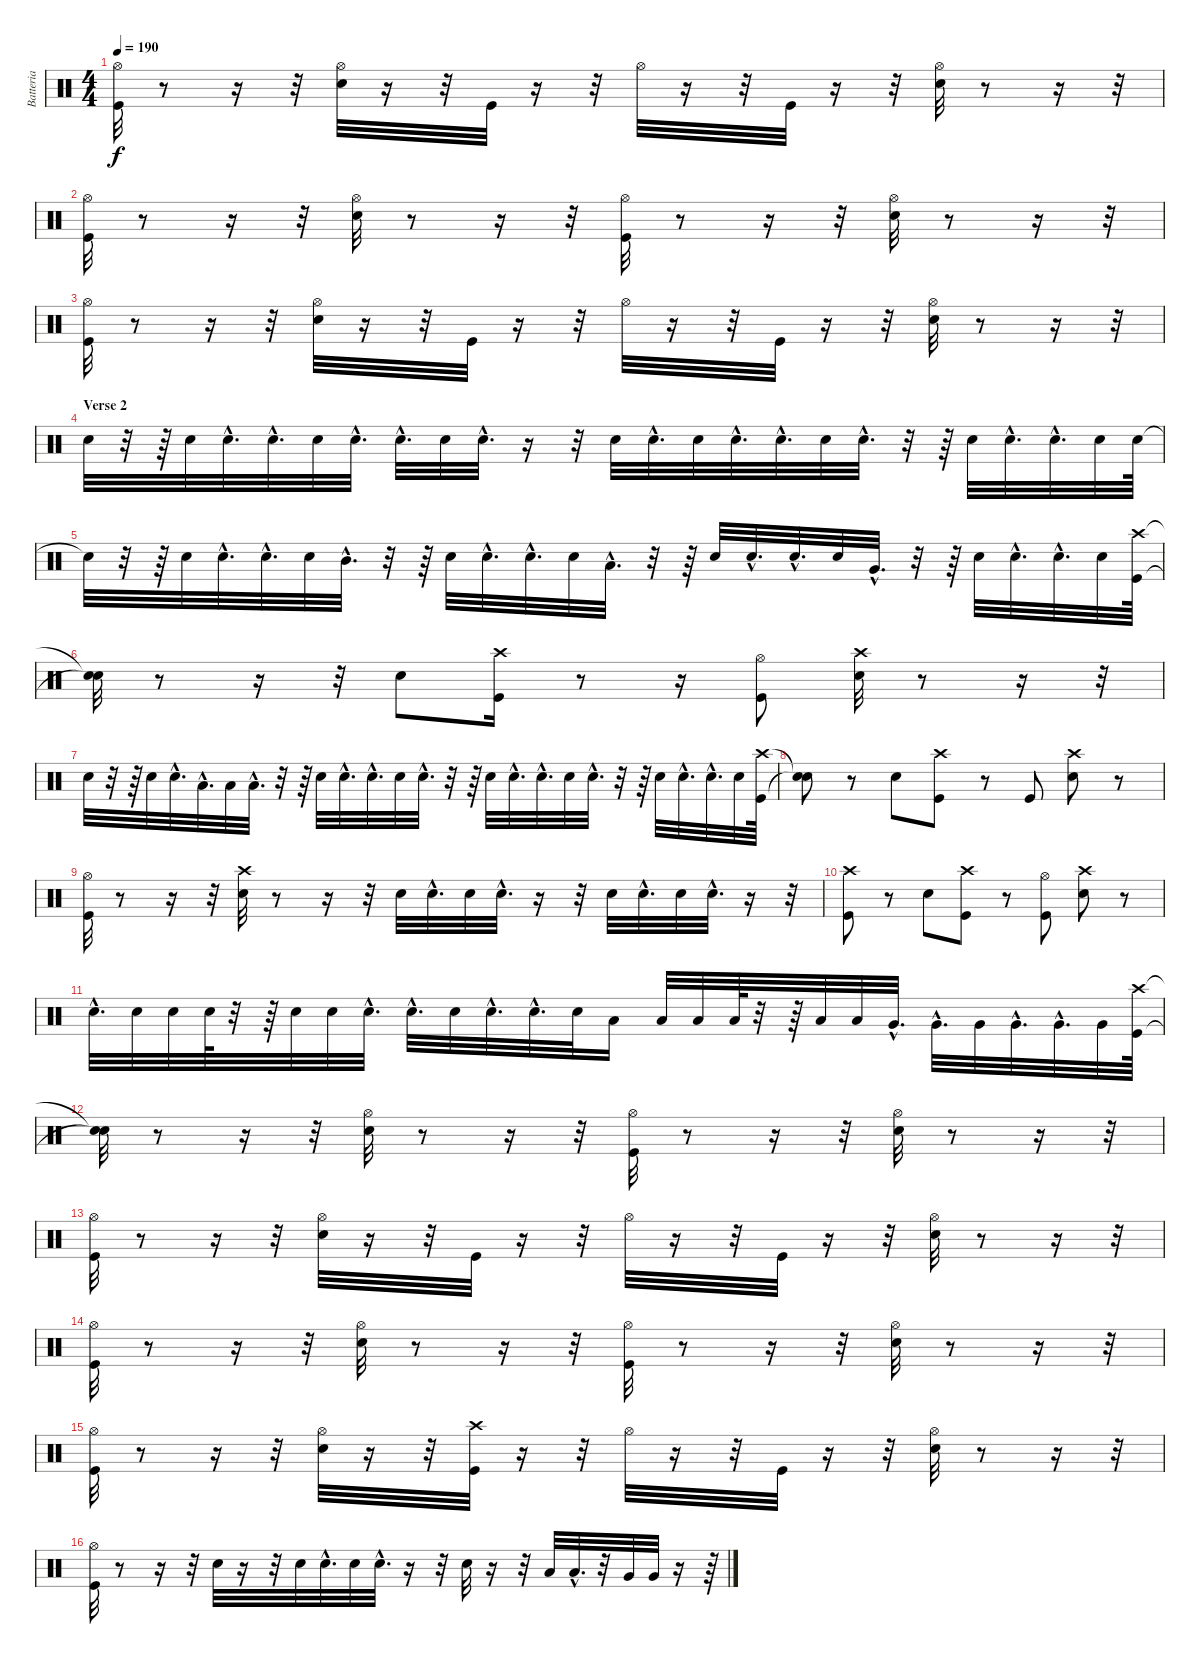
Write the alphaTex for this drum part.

\track ("Batteria" "Batteria") {instrument percussion}
\staff {score}
\articulation defaults
\ts (4 4)
\tempo 190
\clef neutral
\ks c
("Kick (hit)" "Hi-Hat (open)").32{dy f} r.8 r.16 r.32 ("Hi-Hat (open)" "Snare (hit) 2").32 r.16 r.32 "Kick (hit)".32 r.16 r.32 "Hi-Hat (open)".32 r.16 r.32 "Kick (hit)".32 r.16 r.32 ("Hi-Hat (open)" "Snare (hit) 2").32 r.8 r.16 r.32 |
("Hi-Hat (open)" "Kick (hit)").32 r.8 r.16 r.32 ("Snare (hit) 2" "Hi-Hat (open)").32 r.8 r.16 r.32 ("Hi-Hat (open)" "Kick (hit)").32 r.8 r.16 r.32 ("Hi-Hat (open)" "Snare (hit) 2").32 r.8 r.16 r.32 |
("Kick (hit)" "Hi-Hat (open)").32 r.8 r.16 r.32 ("Snare (hit) 2" "Hi-Hat (open)").32 r.16 r.32 "Kick (hit)".32 r.16 r.32 "Hi-Hat (open)".32 r.16 r.32 "Kick (hit)".32 r.16 r.32 ("Snare (hit) 2" "Hi-Hat (open)").32 r.8 r.16 r.32 |
\section ("" "Verse 2")
"Snare (hit) 2".32 r.32 r.64 "Snare (hit) 2".32 "Snare (hit) 2"{hac}.32{d} "Snare (hit) 2"{hac}.32{d} "Snare (hit) 2".32 "Snare (hit) 2"{hac}.32{d} "Snare (hit) 2"{hac}.32{d} "Snare (hit) 2".32 "Snare (hit) 2"{hac}.32{d} r.16 r.32 "Snare (hit) 2".32 "Snare (hit) 2"{hac}.32{d} "Snare (hit) 2".32 "Snare (hit) 2"{hac}.32{d} "Snare (hit) 2"{hac}.32{d} "Snare (hit) 2".32 "Snare (hit) 2"{hac}.32{d} r.32 r.64 "Snare (hit) 2".32 "Snare (hit) 2"{hac}.32{d} "Snare (hit) 2"{hac}.32{d} "Snare (hit) 2".32 "Snare (hit) 2".64 |
"Snare (hit)"{t}.32 r.32 r.64 "Snare (hit) 2".32 "Snare (hit) 2"{hac}.32{d} "Snare (hit) 2"{hac}.32{d} "Snare (hit) 2".32 "Mid Tom (hit)"{hac}.32{d} r.32 r.64 "Snare (hit) 2".32 "Snare (hit) 2"{hac}.32{d} "Snare (hit) 2"{hac}.32{d} "Snare (hit) 2".32 "Low Tom (hit)"{hac}.32{d} r.32 r.64 "Snare (hit) 2".32 "Snare (hit) 2"{hac}.32{d} "Snare (hit) 2"{hac}.32{d} "Snare (hit) 2".32 "Very Low Tom (hit)"{hac}.32{d} r.32 r.64 "Snare (hit) 2".32 "Snare (hit) 2"{hac}.32{d} "Snare (hit) 2"{hac}.32{d} "Snare (hit) 2".32 ("Crash high (hit)" "Kick (hit)").64 |
("Snare (hit)"{t} "Snare (hit)"{t}).32 r.8 r.16 r.32 "Snare (hit) 2".8 ("Crash high (hit)" "Kick (hit)").16 r.8 r.16 ("Hi-Hat (open)" "Kick (hit)").8 ("Crash high (hit)" "Snare (hit) 2").32 r.8 r.16 r.32 |
"Snare (hit) 2".32 r.32 r.64 "Snare (hit) 2".32 "Snare (hit) 2"{hac}.32{d} "Low Tom (hit)"{hac}.32{d} "Low Tom (hit)".32 "Low Tom (hit)"{hac}.32{d} r.32 r.64 "Snare (hit) 2".32 "Snare (hit) 2"{hac}.32{d} "Snare (hit) 2"{hac}.32{d} "Snare (hit) 2".32 "Snare (hit) 2"{hac}.32{d} r.32 r.64 "Snare (hit) 2".32 "Snare (hit) 2"{hac}.32{d} "Snare (hit) 2"{hac}.32{d} "Snare (hit) 2".32 "Snare (hit) 2"{hac}.32{d} r.32 r.64 "Snare (hit) 2".32 "Snare (hit) 2"{hac}.32{d} "Snare (hit) 2"{hac}.32{d} "Snare (hit) 2".32 ("Kick (hit)" "Crash high (hit)").64 |
("Snare (hit)"{t} "Snare (hit)"{t}).8 r.8 "Snare (hit) 2".8 ("Crash high (hit)" "Kick (hit)").8 r.8 "Kick (hit)".8 ("Crash high (hit)" "Snare (hit) 2").8 r.8 |
("Kick (hit)" "Hi-Hat (open)").32 r.8 r.16 r.32 ("Crash high (hit)" "Snare (hit) 2").32 r.8 r.16 r.32 "Snare (hit) 2".32 "Snare (hit) 2"{hac}.32{d} "Snare (hit) 2".32 "Snare (hit) 2"{hac}.32{d} r.16 r.32 "Snare (hit) 2".32 "Snare (hit) 2"{hac}.32{d} "Snare (hit) 2".32 "Snare (hit) 2"{hac}.32{d} r.16 r.32 |
("Kick (hit)" "Crash high (hit)").8 r.8 "Snare (hit) 2".8 ("Kick (hit)" "Crash high (hit)").8 r.8 ("Hi-Hat (open)" "Kick (hit)").8 ("Snare (hit) 2" "Crash high (hit)").8 r.8 |
"Snare (hit) 2"{hac}.32{d} "Snare (hit) 2".32 "Snare (hit) 2".32 "Snare (hit) 2".64 r.32 r.64 "Snare (hit) 2".32 "Snare (hit) 2".32 "Snare (hit) 2"{hac}.32{d} "Snare (hit) 2"{hac}.32{d} "Snare (hit) 2".32 "Snare (hit) 2"{hac}.32{d} "Snare (hit) 2"{hac}.32{d} "Snare (hit) 2".32 "Low Tom (hit)".16 "Low Tom (hit)".32 "Low Tom (hit)".32 "Low Tom (hit)".64 r.32 r.64 "Low Tom (hit)".32 "Low Tom (hit)".32 "Very Low Tom (hit)"{hac}.32{d} "Very Low Tom (hit)"{hac}.32{d} "Very Low Tom (hit)".32 "Very Low Tom (hit)"{hac}.32{d} "Very Low Tom (hit)"{hac}.32{d} "Very Low Tom (hit)".32 ("Crash high (hit)" "Kick (hit)").64 |
("Snare (hit)"{t} "Snare (hit)"{t}).32 r.8 r.16 r.32 ("Hi-Hat (open)" "Snare (hit) 2").32 r.8 r.16 r.32 ("Hi-Hat (open)" "Kick (hit)").32 r.8 r.16 r.32 ("Hi-Hat (open)" "Snare (hit) 2").32 r.8 r.16 r.32 |
("Hi-Hat (open)" "Kick (hit)").32 r.8 r.16 r.32 ("Hi-Hat (open)" "Snare (hit) 2").32 r.16 r.32 "Kick (hit)".32 r.16 r.32 "Hi-Hat (open)".32 r.16 r.32 "Kick (hit)".32 r.16 r.32 ("Snare (hit) 2" "Hi-Hat (open)").32 r.8 r.16 r.32 |
("Kick (hit)" "Hi-Hat (open)").32 r.8 r.16 r.32 ("Snare (hit) 2" "Hi-Hat (open)").32 r.8 r.16 r.32 ("Hi-Hat (open)" "Kick (hit)").32 r.8 r.16 r.32 ("Snare (hit) 2" "Hi-Hat (open)").32 r.8 r.16 r.32 |
("Kick (hit)" "Hi-Hat (open)").32 r.8 r.16 r.32 ("Snare (hit) 2" "Hi-Hat (open)").32 r.16 r.32 ("Kick (hit)" "Crash high (hit)").32 r.16 r.32 "Hi-Hat (open)".32 r.16 r.32 "Kick (hit)".32 r.16 r.32 ("Snare (hit) 2" "Hi-Hat (open)").32 r.8 r.16 r.32 |
("Hi-Hat (open)" "Kick (hit)").32 r.8 r.16 r.32 "Snare (hit) 2".32 r.16 r.32 "Snare (hit) 2".32 "Snare (hit) 2"{hac}.32{d} "Snare (hit) 2".32 "Snare (hit) 2"{hac}.32{d} r.16 r.32 "Snare (hit) 2".32 r.16 r.32 "Low Tom (hit)".32 "Low Tom (hit)"{hac}.32{d} r.32 "Very Low Tom (hit)".32 "Very Low Tom (hit)".32 r.16 r.64
